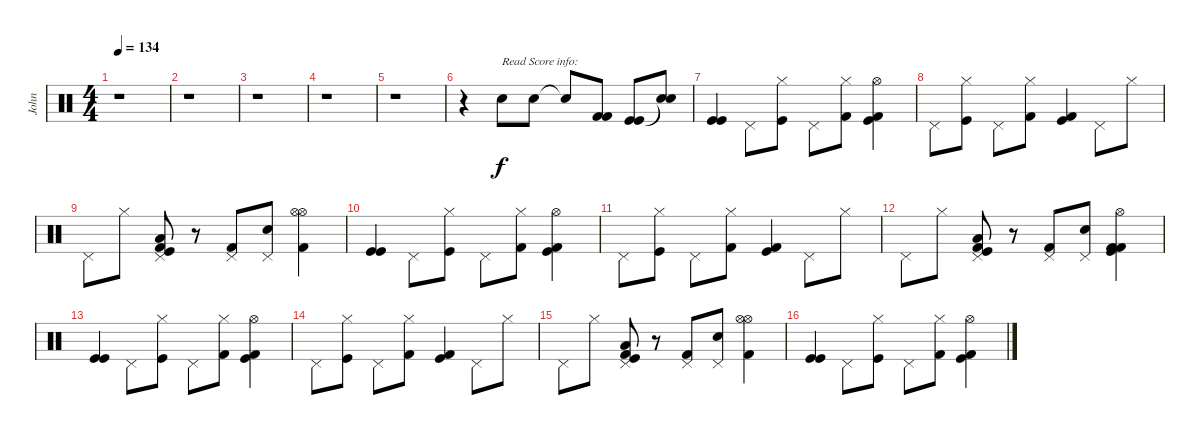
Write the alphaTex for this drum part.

\track ("John" "John") {instrument percussion}
\staff {score}
\articulation defaults
\ts (4 4)
\tempo 134
\clef neutral
\ks c
r.1{dy f} |
r.1 |
r.1 |
r.1 |
r.1 |
r.4 "Electric Snare (hit)".8{txt "Read Score info:"} "Snare (hit) 2".8 "Snare (hit)"{t}.8 ("Kick (hit) 2" "Kick (hit) 2").8 ("Kick (hit)" "Kick (hit)").8 ("Snare (hit)"{t} "Snare (hit)"{t}).8 |
("Kick (hit)" "Kick (hit)").4 "Pedal Hi-Hat (hit)".8 ("Hi-Hat (closed)" "Kick (hit)").8 "Pedal Hi-Hat (hit)".8 ("Hi-Hat (closed)" "Kick (hit) 2").8 ("Kick (hit)" "Kick (hit) 2" "Hi-Hat (open)").4 |
"Pedal Hi-Hat (hit)".8 ("Hi-Hat (closed)" "Kick (hit)").8 "Pedal Hi-Hat (hit)".8 ("Hi-Hat (closed)" "Kick (hit) 2").8 ("Kick (hit)" "Kick (hit) 2").4 "Pedal Hi-Hat (hit)".8 "Hi-Hat (closed)".8 |
"Pedal Hi-Hat (hit)".8 "Hi-Hat (closed)".8 ("Low Tom (hit)" "Kick (hit)" "Kick (hit) 2" "Pedal Hi-Hat (hit)").8 r.8 ("Pedal Hi-Hat (hit)" "Kick (hit) 2").8 ("Pedal Hi-Hat (hit)" "Snare (hit) 2").8 ("Kick (hit) 2" "Hi-Hat (open)" "Hi-Hat (open)").4 |
("Kick (hit)" "Kick (hit)").4 "Pedal Hi-Hat (hit)".8 ("Hi-Hat (closed)" "Kick (hit)").8 "Pedal Hi-Hat (hit)".8 ("Hi-Hat (closed)" "Kick (hit) 2").8 ("Kick (hit)" "Kick (hit) 2" "Hi-Hat (open)").4 |
"Pedal Hi-Hat (hit)".8 ("Hi-Hat (closed)" "Kick (hit)").8 "Pedal Hi-Hat (hit)".8 ("Hi-Hat (closed)" "Kick (hit) 2").8 ("Kick (hit)" "Kick (hit) 2").4 "Pedal Hi-Hat (hit)".8 "Hi-Hat (closed)".8 |
"Pedal Hi-Hat (hit)".8 "Hi-Hat (closed)".8 ("Low Tom (hit)" "Kick (hit)" "Kick (hit) 2" "Pedal Hi-Hat (hit)").8 r.8 ("Pedal Hi-Hat (hit)" "Kick (hit) 2").8 ("Pedal Hi-Hat (hit)" "Snare (hit) 2").8 ("Kick (hit)" "Kick (hit) 2" "Hi-Hat (open)" "Kick (hit) 2").4 |
("Kick (hit)" "Kick (hit)").4 "Pedal Hi-Hat (hit)".8 ("Hi-Hat (closed)" "Kick (hit)").8 "Pedal Hi-Hat (hit)".8 ("Hi-Hat (closed)" "Kick (hit) 2").8 ("Kick (hit)" "Kick (hit) 2" "Hi-Hat (open)").4 |
"Pedal Hi-Hat (hit)".8 ("Hi-Hat (closed)" "Kick (hit)").8 "Pedal Hi-Hat (hit)".8 ("Hi-Hat (closed)" "Kick (hit) 2").8 ("Kick (hit)" "Kick (hit) 2").4 "Pedal Hi-Hat (hit)".8 "Hi-Hat (closed)".8 |
"Pedal Hi-Hat (hit)".8 "Hi-Hat (closed)".8 ("Low Tom (hit)" "Kick (hit)" "Kick (hit) 2" "Pedal Hi-Hat (hit)").8 r.8 ("Pedal Hi-Hat (hit)" "Kick (hit) 2").8 ("Pedal Hi-Hat (hit)" "Snare (hit) 2").8 ("Kick (hit) 2" "Hi-Hat (open)" "Hi-Hat (open)").4 |
("Kick (hit)" "Kick (hit)").4 "Pedal Hi-Hat (hit)".8 ("Hi-Hat (closed)" "Kick (hit)").8 "Pedal Hi-Hat (hit)".8 ("Hi-Hat (closed)" "Kick (hit) 2").8 ("Kick (hit)" "Kick (hit) 2" "Hi-Hat (open)").4
